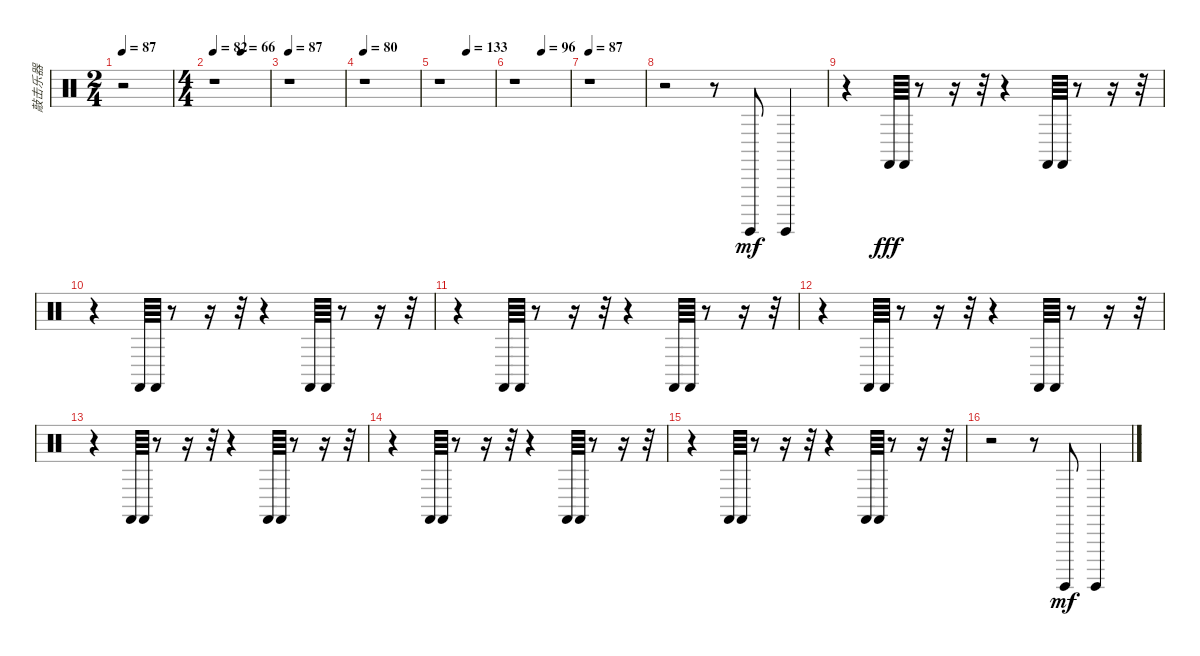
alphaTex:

\track ("敲击乐器" "敲击乐器") {instrument percussion}
\staff {score}
\articulation defaults
\ts (2 4)
\tempo 87
\clef neutral
\ks c
r.2{dy mf} |
\ts (4 4)
\tempo 82
\tempo (66 0.5)
r.1 |
\tempo 87
r.1 |
\tempo 80
r.1 |
\tempo (133 0.5)
r.1 |
\tempo (96 0.5)
r.1 |
\tempo 87
r.1 |
r.2 r.8 "Surdo (hit)".8 "Surdo (hit)".4 |
r.4 "Castanets (hit)".64{dy fff} "Castanets (hit)".64 r.8 r.16 r.32 r.4 "Castanets (hit)".64 "Castanets (hit)".64 r.8 r.16 r.32 |
r.4 "Castanets (hit)".64 "Castanets (hit)".64 r.8 r.16 r.32 r.4 "Castanets (hit)".64 "Castanets (hit)".64 r.8 r.16 r.32 |
r.4 "Castanets (hit)".64 "Castanets (hit)".64 r.8 r.16 r.32 r.4 "Castanets (hit)".64 "Castanets (hit)".64 r.8 r.16 r.32 |
r.4 "Castanets (hit)".64 "Castanets (hit)".64 r.8 r.16 r.32 r.4 "Castanets (hit)".64 "Castanets (hit)".64 r.8 r.16 r.32 |
r.4 "Castanets (hit)".64 "Castanets (hit)".64 r.8 r.16 r.32 r.4 "Castanets (hit)".64 "Castanets (hit)".64 r.8 r.16 r.32 |
r.4 "Castanets (hit)".64 "Castanets (hit)".64 r.8 r.16 r.32 r.4 "Castanets (hit)".64 "Castanets (hit)".64 r.8 r.16 r.32 |
r.4 "Castanets (hit)".64 "Castanets (hit)".64 r.8 r.16 r.32 r.4 "Castanets (hit)".64 "Castanets (hit)".64 r.8 r.16 r.32 |
r.2 r.8 "Surdo (hit)".8{dy mf} "Surdo (hit)".4
